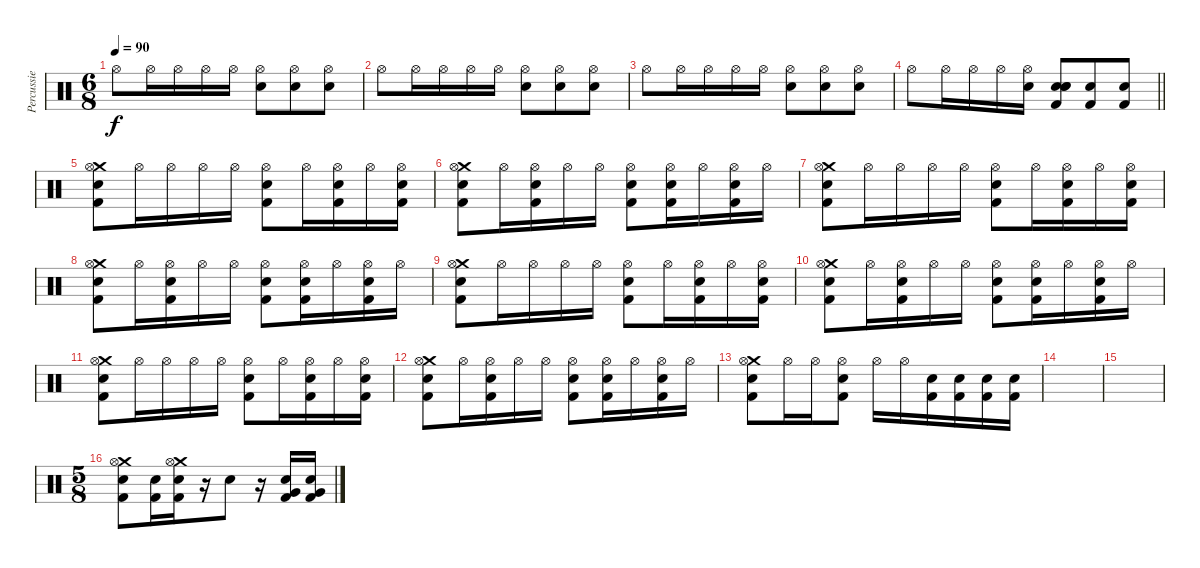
\track ("Percussie" "Percussie") {instrument percussion}
\staff {score}
\articulation defaults
\ts (6 8)
\tempo 90
\clef neutral
\ks c "Hi-Hat (open)".8{dy f} "Hi-Hat (open)".16 "Hi-Hat (open)".16 "Hi-Hat (open)".16 "Hi-Hat (open)".16
("Hi-Hat (open)" "Snare (hit) 2").8 ("Hi-Hat (open)" "Snare (hit) 2").8 ("Hi-Hat (open)" "Snare (hit) 2").8 |
"Hi-Hat (open)".8 "Hi-Hat (open)".16 "Hi-Hat (open)".16 "Hi-Hat (open)".16 "Hi-Hat (open)".16 ("Hi-Hat (open)" "Snare (hit) 2").8 ("Hi-Hat (open)" "Snare (hit) 2").8 ("Hi-Hat (open)" "Snare (hit) 2").8 |
"Hi-Hat (open)".8 "Hi-Hat (open)".16 "Hi-Hat (open)".16 "Hi-Hat (open)".16 "Hi-Hat (open)".16 ("Hi-Hat (open)" "Snare (hit) 2").8 ("Hi-Hat (open)" "Snare (hit) 2").8 ("Hi-Hat (open)" "Snare (hit) 2").8 |
\barLineRight lightlight "Hi-Hat (open)".8 "Hi-Hat (open)".16 "Hi-Hat (open)".16 "Hi-Hat (open)".16
("Hi-Hat (open)" "Snare (hit) 2").16 ("Snare (hit) 2" "Snare (hit) 2" "Kick (hit) 2" "Electric Snare (hit)").8 ("Kick (hit) 2" "Electric Snare (hit)").8 ("Kick (hit) 2" "Electric Snare (hit)").8 |
("Crash medium (hit)" "Hi-Hat (open)" "Snare (hit) 2" "Kick (hit) 2").8 "Hi-Hat (open)".16 "Hi-Hat (open)".16 "Hi-Hat (open)".16 "Hi-Hat (open)".16 ("Hi-Hat (open)" "Snare (hit) 2" "Kick (hit) 2").8 "Hi-Hat (open)".16 ("Hi-Hat (open)" "Snare (hit) 2" "Kick (hit) 2").16 "Hi-Hat (open)".16 ("Hi-Hat (open)" "Snare (hit) 2" "Kick (hit) 2").16 |
("Crash medium (hit)" "Hi-Hat (open)" "Snare (hit) 2" "Kick (hit) 2").8 "Hi-Hat (open)".16 ("Hi-Hat (open)" "Snare (hit) 2" "Kick (hit) 2").16 "Hi-Hat (open)".16 "Hi-Hat (open)".16 ("Hi-Hat (open)" "Snare (hit) 2" "Kick (hit) 2").8 ("Hi-Hat (open)" "Snare (hit) 2" "Kick (hit) 2").16 "Hi-Hat (open)".16 ("Hi-Hat (open)" "Snare (hit) 2" "Kick (hit) 2").16 "Hi-Hat (open)".16 |
("Crash medium (hit)" "Hi-Hat (open)" "Snare (hit) 2" "Kick (hit) 2").8 "Hi-Hat (open)".16 "Hi-Hat (open)".16 "Hi-Hat (open)".16 "Hi-Hat (open)".16 ("Hi-Hat (open)" "Snare (hit) 2" "Kick (hit) 2").8 "Hi-Hat (open)".16 ("Hi-Hat (open)" "Snare (hit) 2" "Kick (hit) 2").16 "Hi-Hat (open)".16 ("Hi-Hat (open)" "Snare (hit) 2" "Kick (hit) 2").16 |
("Crash medium (hit)" "Hi-Hat (open)" "Snare (hit) 2" "Kick (hit) 2").8 "Hi-Hat (open)".16 ("Hi-Hat (open)" "Snare (hit) 2" "Kick (hit) 2").16 "Hi-Hat (open)".16 "Hi-Hat (open)".16 ("Hi-Hat (open)" "Snare (hit) 2" "Kick (hit) 2").8 ("Hi-Hat (open)" "Snare (hit) 2" "Kick (hit) 2").16 "Hi-Hat (open)".16 ("Hi-Hat (open)" "Snare (hit) 2" "Kick (hit) 2").16 "Hi-Hat (open)".16 |
("Crash medium (hit)" "Hi-Hat (open)" "Snare (hit) 2" "Kick (hit) 2").8 "Hi-Hat (open)".16 "Hi-Hat (open)".16 "Hi-Hat (open)".16 "Hi-Hat (open)".16 ("Hi-Hat (open)" "Snare (hit) 2" "Kick (hit) 2").8 "Hi-Hat (open)".16 ("Hi-Hat (open)" "Snare (hit) 2" "Kick (hit) 2").16 "Hi-Hat (open)".16 ("Hi-Hat (open)" "Snare (hit) 2" "Kick (hit) 2").16 |
("Crash medium (hit)" "Hi-Hat (open)" "Snare (hit) 2" "Kick (hit) 2").8 "Hi-Hat (open)".16 ("Hi-Hat (open)" "Snare (hit) 2" "Kick (hit) 2").16 "Hi-Hat (open)".16 "Hi-Hat (open)".16 ("Hi-Hat (open)" "Snare (hit) 2" "Kick (hit) 2").8 ("Hi-Hat (open)" "Snare (hit) 2" "Kick (hit) 2").16 "Hi-Hat (open)".16 ("Hi-Hat (open)" "Snare (hit) 2" "Kick (hit) 2").16 "Hi-Hat (open)".16 |
("Crash medium (hit)" "Hi-Hat (open)" "Snare (hit) 2" "Kick (hit) 2").8 "Hi-Hat (open)".16 "Hi-Hat (open)".16 "Hi-Hat (open)".16 "Hi-Hat (open)".16 ("Hi-Hat (open)" "Snare (hit) 2" "Kick (hit) 2").8 "Hi-Hat (open)".16 ("Hi-Hat (open)" "Snare (hit) 2" "Kick (hit) 2").16 "Hi-Hat (open)".16 ("Hi-Hat (open)" "Snare (hit) 2" "Kick (hit) 2").16 |
("Crash medium (hit)" "Hi-Hat (open)" "Snare (hit) 2" "Kick (hit) 2").8 "Hi-Hat (open)".16 ("Hi-Hat (open)" "Snare (hit) 2" "Kick (hit) 2").16 "Hi-Hat (open)".16 "Hi-Hat (open)".16 ("Hi-Hat (open)" "Snare (hit) 2" "Kick (hit) 2").8 ("Hi-Hat (open)" "Snare (hit) 2" "Kick (hit) 2").16 "Hi-Hat (open)".16 ("Hi-Hat (open)" "Snare (hit) 2" "Kick (hit) 2").16 "Hi-Hat (open)".16 |
("Crash medium (hit)" "Hi-Hat (open)" "Snare (hit) 2" "Kick (hit) 2").8 "Hi-Hat (open)".16 "Hi-Hat (open)".16 ("Hi-Hat (open)" "Snare (hit) 2" "Kick (hit) 2").8 "Hi-Hat (open)".16 "Hi-Hat (open)".16 ("Snare (hit) 2" "Kick (hit) 2").16 ("Snare (hit) 2" "Kick (hit) 2").16 ("Snare (hit) 2" "Kick (hit) 2").16 ("Snare (hit) 2" "Kick (hit) 2").16 |
|
|
\ts (5 8)
("Crash medium (hit)" "Hi-Hat (open)" "Snare (hit) 2" "Kick (hit) 2").8 ("Snare (hit) 2" "Kick (hit) 2").16 ("Crash medium (hit)" "Hi-Hat (open)" "Snare (hit) 2" "Kick (hit) 2").16 r.16 "Snare (hit) 2".8 r.16 ("Very Low Tom (hit)" "Snare (hit) 2" "Kick (hit) 2").16 ("Very Low Tom (hit)" "Snare (hit) 2" "Kick (hit) 2").16
